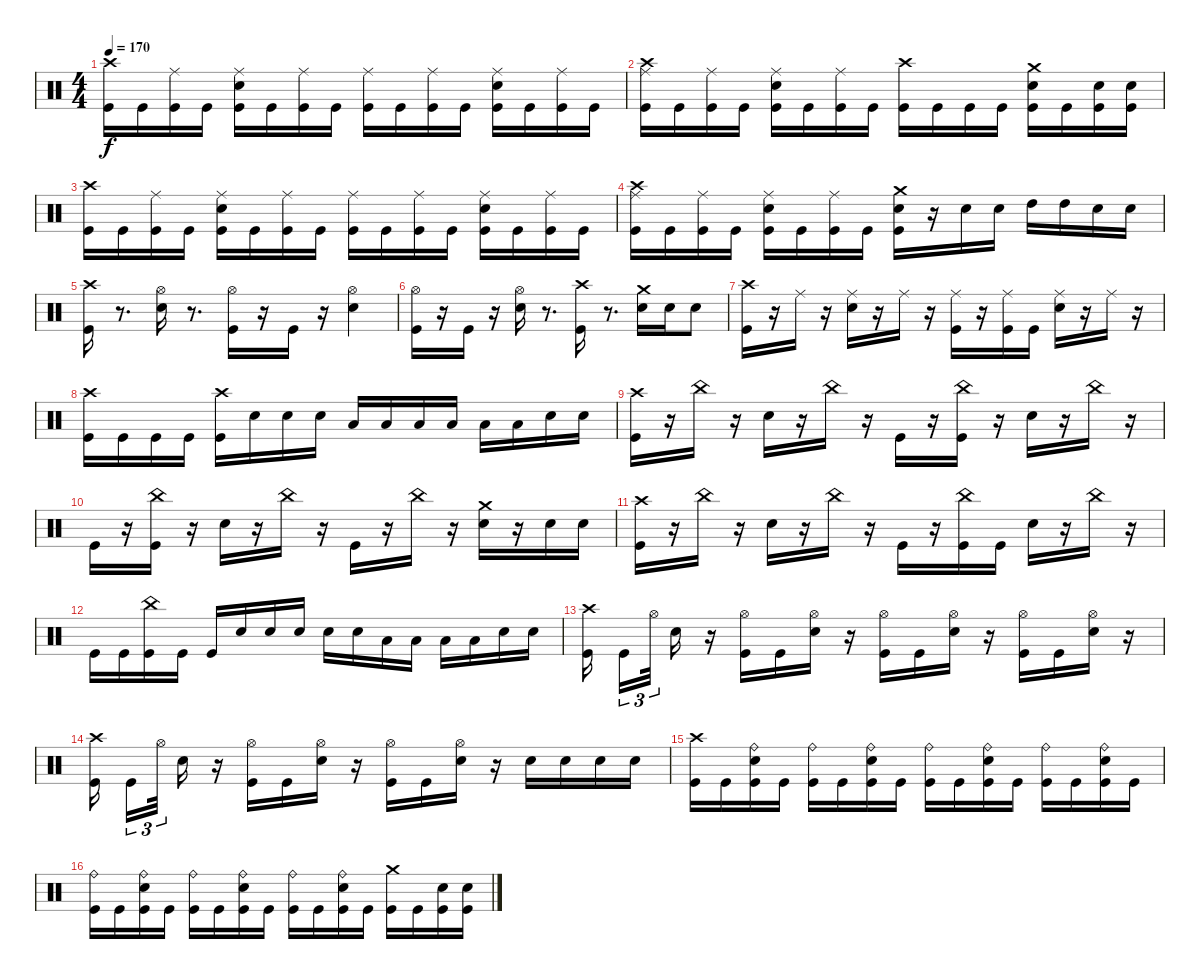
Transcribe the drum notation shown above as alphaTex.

\track "" {instrument percussion}
\staff {score}
\articulation defaults
\ts (4 4)
\tempo 170
\clef neutral
\ks c
("Crash high (hit)" "Kick (hit)").16{dy f} "Kick (hit)".16 ("Ride (middle)" "Kick (hit)").16 "Kick (hit)".16 ("Snare (hit) 2" "Ride (middle)" "Kick (hit)").16 "Kick (hit)".16 ("Kick (hit)" "Ride (middle)").16 "Kick (hit)".16 ("Ride (middle)" "Kick (hit)").16 "Kick (hit)".16 ("Ride (middle)" "Kick (hit)").16 "Kick (hit)".16 ("Snare (hit) 2" "Ride (middle)" "Kick (hit)").16 "Kick (hit)".16 ("Ride (middle)" "Kick (hit)").16 "Kick (hit)".16 |
("Ride (middle)" "Crash high (hit)" "Kick (hit)").16 "Kick (hit)".16 ("Ride (middle)" "Kick (hit)").16 "Kick (hit)".16 ("Snare (hit) 2" "Ride (middle)" "Kick (hit)").16 "Kick (hit)".16 ("Kick (hit)" "Ride (middle)").16 "Kick (hit)".16 ("Crash high (hit)" "Kick (hit)").16 "Kick (hit)".16 "Kick (hit)".16 "Kick (hit)".16 ("Kick (hit)" "Snare (hit) 2" "Crash medium (hit)").16 "Kick (hit)".16 ("Kick (hit)" "Snare (hit) 2").16 ("Kick (hit)" "Snare (hit) 2").16 |
("Crash high (hit)" "Kick (hit)").16 "Kick (hit)".16 ("Ride (middle)" "Kick (hit)").16 "Kick (hit)".16 ("Snare (hit) 2" "Ride (middle)" "Kick (hit)").16 "Kick (hit)".16 ("Kick (hit)" "Ride (middle)").16 "Kick (hit)".16 ("Ride (middle)" "Kick (hit)").16 "Kick (hit)".16 ("Ride (middle)" "Kick (hit)").16 "Kick (hit)".16 ("Snare (hit) 2" "Ride (middle)" "Kick (hit)").16 "Kick (hit)".16 ("Ride (middle)" "Kick (hit)").16 "Kick (hit)".16 |
("Ride (middle)" "Crash high (hit)" "Kick (hit)").16 "Kick (hit)".16 ("Ride (middle)" "Kick (hit)").16 "Kick (hit)".16 ("Snare (hit) 2" "Ride (middle)" "Kick (hit)").16 "Kick (hit)".16 ("Kick (hit)" "Ride (middle)").16 "Kick (hit)".16 ("Snare (hit) 2" "Kick (hit)" "Crash medium (hit)").16 r.16 "Snare (hit) 2".16 "Snare (hit) 2".16 "High Tom (hit)".16 "High Tom (hit)".16 "Snare (hit) 2".16 "Snare (hit) 2".16 |
("Crash high (hit)" "Kick (hit)").16 r.8{d} ("Hi-Hat (open)" "Snare (hit) 2").16 r.8{d} ("Hi-Hat (open)" "Kick (hit)").16 r.16 "Kick (hit)".16 r.16 ("Hi-Hat (open)" "Snare (hit) 2").4 |
("Hi-Hat (open)" "Kick (hit)").16 r.16 "Kick (hit)".16 r.16 ("Hi-Hat (open)" "Snare (hit) 2").16 r.8{d} ("Crash high (hit)" "Kick (hit)").16 r.8{d} ("Crash medium (hit)" "Snare (hit) 2").16 "Snare (hit) 2".16 "Snare (hit) 2".8 |
("Kick (hit)" "Crash high (hit)").16 r.16 "Ride (middle)".16 r.16 ("Ride (middle)" "Snare (hit) 2").16 r.16 "Ride (middle)".16 r.16 ("Ride (middle)" "Kick (hit)").16 r.16 ("Ride (middle)" "Kick (hit)").16 "Kick (hit)".16 ("Snare (hit) 2" "Ride (middle)").16 r.16 "Ride (middle)".16 r.16 |
("Crash high (hit)" "Kick (hit)").16 "Kick (hit)".16 "Kick (hit)".16 "Kick (hit)".16 ("Kick (hit)" "Crash high (hit)").16 "Snare (hit) 2".16 "Snare (hit) 2".16 "Snare (hit) 2".16 "Low Tom (hit)".16 "Low Tom (hit)".16 "Low Tom (hit)".16 "Low Tom (hit)".16 "Low Floor Tom (hit)".16 "Low Floor Tom (hit)".16 "Snare (hit) 2".16 "Snare (hit) 2".16 |
("Crash high (hit)" "Kick (hit)").16 r.16 "China (hit)".16 r.16 "Snare (hit) 2".16 r.16 "China (hit)".16 r.16 "Kick (hit)".16 r.16 ("China (hit)" "Kick (hit)").16 r.16 "Snare (hit) 2".16 r.16 "China (hit)".16 r.16 |
"Kick (hit)".16 r.16 ("China (hit)" "Kick (hit)").16 r.16 "Snare (hit) 2".16 r.16 "China (hit)".16 r.16 "Kick (hit)".16 r.16 "China (hit)".16 r.16 ("Crash medium (hit)" "Snare (hit) 2").16 r.16 "Snare (hit) 2".16 "Snare (hit) 2".16 |
("Crash high (hit)" "Kick (hit)").16 r.16 "China (hit)".16 r.16 "Snare (hit) 2".16 r.16 "China (hit)".16 r.16 "Kick (hit)".16 r.16 ("China (hit)" "Kick (hit)").16 "Kick (hit)".16 "Snare (hit) 2".16 r.16 "China (hit)".16 r.16 |
"Kick (hit)".16 "Kick (hit)".16 ("China (hit)" "Kick (hit)").16 "Kick (hit)".16 "Kick (hit)".16 "Snare (hit) 2".16 "Snare (hit) 2".16 "Snare (hit) 2".16 "Snare (hit) 2".16 "Snare (hit) 2".16 "Low Tom (hit)".16 "Low Tom (hit)".16 "Low Floor Tom (hit)".16 "Low Floor Tom (hit)".16 "Snare (hit) 2".16 "Snare (hit) 2".16 |
("Crash high (hit)" "Kick (hit)").16{beam splitsecondary} "Kick (hit)".16{tu (3 2)} "Hi-Hat (open)".32{tu (3 2) beam splitsecondary} "Snare (hit) 2".16 r.16 ("Hi-Hat (open)" "Kick (hit)").16 "Kick (hit)".16 ("Hi-Hat (open)" "Snare (hit) 2").16 r.16 ("Hi-Hat (open)" "Kick (hit)").16 "Kick (hit)".16 ("Hi-Hat (open)" "Snare (hit) 2").16 r.16 ("Hi-Hat (open)" "Kick (hit)").16 "Kick (hit)".16 ("Snare (hit) 2" "Hi-Hat (open)").16 r.16 |
("Crash high (hit)" "Kick (hit)").16{beam splitsecondary} "Kick (hit)".16{tu (3 2)} "Hi-Hat (open)".32{tu (3 2) beam splitsecondary} "Snare (hit) 2".16 r.16 ("Hi-Hat (open)" "Kick (hit)").16 "Kick (hit)".16 ("Hi-Hat (open)" "Snare (hit) 2").16 r.16 ("Hi-Hat (open)" "Kick (hit)").16 "Kick (hit)".16 ("Hi-Hat (open)" "Snare (hit) 2").16 r.16 "Snare (hit) 2".16 "Snare (hit) 2".16 "Snare (hit) 2".16 "Snare (hit) 2".16 |
("Crash high (hit)" "Kick (hit)").16 "Kick (hit)".16 ("Kick (hit)" "Ride (bell)" "Snare (hit) 2").16 "Kick (hit)".16 ("Ride (bell)" "Kick (hit)").16 "Kick (hit)".16 ("Ride (bell)" "Kick (hit)" "Snare (hit) 2").16 "Kick (hit)".16 ("Ride (bell)" "Kick (hit)").16 "Kick (hit)".16 ("Kick (hit)" "Ride (bell)" "Snare (hit) 2").16 "Kick (hit)".16 ("Ride (bell)" "Kick (hit)").16 "Kick (hit)".16 ("Kick (hit)" "Ride (bell)" "Snare (hit) 2").16 "Kick (hit)".16 |
("Ride (bell)" "Kick (hit)").16 "Kick (hit)".16 ("Ride (bell)" "Kick (hit)" "Snare (hit) 2").16 "Kick (hit)".16 ("Ride (bell)" "Kick (hit)").16 "Kick (hit)".16 ("Kick (hit)" "Ride (bell)" "Snare (hit) 2").16 "Kick (hit)".16 ("Ride (bell)" "Kick (hit)").16 "Kick (hit)".16 ("Kick (hit)" "Ride (bell)" "Snare (hit) 2").16 "Kick (hit)".16 ("Crash medium (hit)" "Kick (hit)").16 "Kick (hit)".16 ("Kick (hit)" "Snare (hit) 2").16 ("Kick (hit)" "Snare (hit) 2").16
